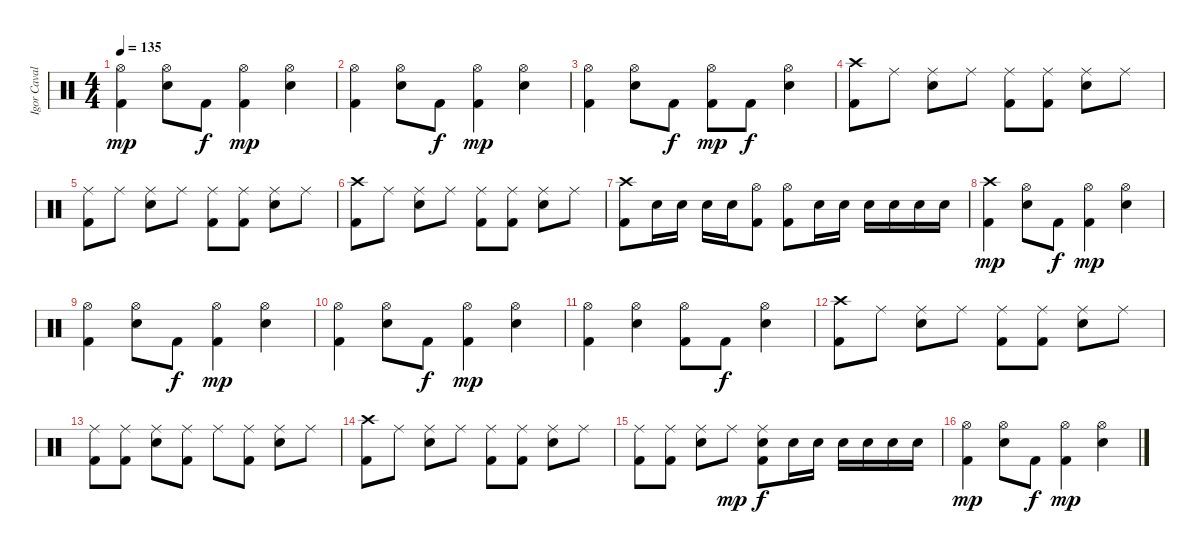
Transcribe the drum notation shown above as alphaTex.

\track ("Igor Cavalera" "Igor Caval") {instrument percussion}
\staff {score}
\articulation defaults
\ts (4 4)
\tempo 135
\clef neutral
\ks c
("Hi-Hat (open)" "Kick (hit) 2").4{dy mp} ("Hi-Hat (open)" "Electric Snare (hit)").8 "Kick (hit) 2".8{dy f} ("Hi-Hat (open)" "Kick (hit) 2").4{dy mp} ("Hi-Hat (open)" "Electric Snare (hit)").4 |
("Hi-Hat (open)" "Kick (hit) 2").4 ("Hi-Hat (open)" "Electric Snare (hit)").8 "Kick (hit) 2".8{dy f} ("Hi-Hat (open)" "Kick (hit) 2").4{dy mp} ("Hi-Hat (open)" "Electric Snare (hit)").4 |
("Hi-Hat (open)" "Kick (hit) 2").4 ("Hi-Hat (open)" "Electric Snare (hit)").8 "Kick (hit) 2".8{dy f} ("Hi-Hat (open)" "Kick (hit) 2").8{dy mp} "Kick (hit) 2".8{dy f} ("Hi-Hat (open)" "Electric Snare (hit)").4 |
("Crash high (hit)" "Kick (hit) 2").8 "Ride (middle)".8 ("Ride (middle)" "Snare (hit) 2").8 "Ride (middle)".8 ("Ride (middle)" "Kick (hit) 2").8 ("Ride (middle)" "Kick (hit) 2").8 ("Ride (middle)" "Snare (hit) 2").8 "Ride (middle)".8 |
("Ride (middle)" "Kick (hit) 2").8 "Ride (middle)".8 ("Ride (middle)" "Snare (hit) 2").8 "Ride (middle)".8 ("Ride (middle)" "Kick (hit) 2").8 ("Ride (middle)" "Kick (hit) 2").8 ("Ride (middle)" "Snare (hit) 2").8 "Ride (middle)".8 |
("Crash high (hit)" "Kick (hit) 2").8 "Ride (middle)".8 ("Ride (middle)" "Snare (hit) 2").8 "Ride (middle)".8 ("Ride (middle)" "Kick (hit) 2").8 ("Ride (middle)" "Kick (hit) 2").8 ("Ride (middle)" "Snare (hit) 2").8 "Ride (middle)".8 |
("Crash high (hit)" "Kick (hit) 2").8 "Snare (hit) 2".16 "Snare (hit) 2".16 "Snare (hit) 2".16 "Snare (hit) 2".16 ("Hi-Hat (open)" "Kick (hit) 2").8 ("Hi-Hat (open)" "Kick (hit) 2").8 "Snare (hit) 2".16 "Snare (hit) 2".16 "Snare (hit) 2".16 "Snare (hit) 2".16 "Snare (hit) 2".16 "Snare (hit) 2".16 |
("Crash high (hit)" "Kick (hit) 2").4{dy mp} ("Hi-Hat (open)" "Electric Snare (hit)").8 "Kick (hit) 2".8{dy f} ("Hi-Hat (open)" "Kick (hit) 2").4{dy mp} ("Hi-Hat (open)" "Electric Snare (hit)").4 |
("Hi-Hat (open)" "Kick (hit) 2").4 ("Hi-Hat (open)" "Electric Snare (hit)").8 "Kick (hit) 2".8{dy f} ("Hi-Hat (open)" "Kick (hit) 2").4{dy mp} ("Hi-Hat (open)" "Electric Snare (hit)").4 |
("Hi-Hat (open)" "Kick (hit) 2").4 ("Hi-Hat (open)" "Electric Snare (hit)").8 "Kick (hit) 2".8{dy f} ("Hi-Hat (open)" "Kick (hit) 2").4{dy mp} ("Hi-Hat (open)" "Electric Snare (hit)").4 |
("Hi-Hat (open)" "Kick (hit) 2").4 ("Hi-Hat (open)" "Electric Snare (hit)").4 ("Hi-Hat (open)" "Kick (hit) 2").8 "Kick (hit) 2".8{dy f} ("Hi-Hat (open)" "Electric Snare (hit)").4 |
("Crash high (hit)" "Kick (hit) 2").8 "Ride (middle)".8 ("Ride (middle)" "Electric Snare (hit)").8 "Ride (middle)".8 ("Ride (middle)" "Kick (hit) 2").8 ("Ride (middle)" "Kick (hit) 2").8 ("Ride (middle)" "Electric Snare (hit)").8 "Ride (middle)".8 |
("Ride (middle)" "Kick (hit) 2").8 ("Ride (middle)" "Kick (hit) 2").8 ("Ride (middle)" "Electric Snare (hit)").8 ("Ride (middle)" "Kick (hit) 2").8 "Ride (middle)".8 ("Ride (middle)" "Kick (hit) 2").8 ("Ride (middle)" "Electric Snare (hit)").8 "Ride (middle)".8 |
("Crash high (hit)" "Kick (hit) 2").8 "Ride (middle)".8 ("Ride (middle)" "Electric Snare (hit)").8 "Ride (middle)".8 ("Ride (middle)" "Kick (hit) 2").8 ("Ride (middle)" "Kick (hit) 2").8 ("Ride (middle)" "Electric Snare (hit)").8 "Ride (middle)".8 |
("Ride (middle)" "Kick (hit) 2").8 ("Ride (middle)" "Kick (hit) 2").8 ("Ride (middle)" "Electric Snare (hit)").8 "Ride (middle)".8{dy mp} ("Ride (middle)" "Electric Snare (hit)" "Kick (hit) 2").8{dy f} "Electric Snare (hit)".16 "Electric Snare (hit)".16 "Electric Snare (hit)".16 "Electric Snare (hit)".16 "Electric Snare (hit)".16 "Electric Snare (hit)".16 |
("Hi-Hat (open)" "Kick (hit) 2").4{dy mp} ("Hi-Hat (open)" "Electric Snare (hit)").8 "Kick (hit) 2".8{dy f} ("Hi-Hat (open)" "Kick (hit) 2").4{dy mp} ("Hi-Hat (open)" "Electric Snare (hit)").4
